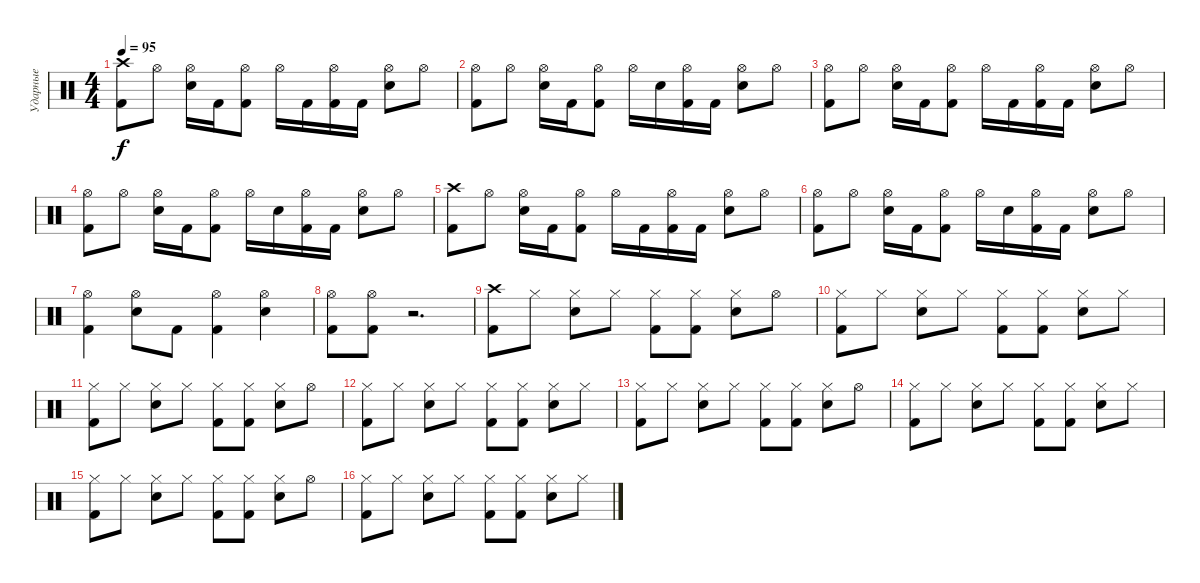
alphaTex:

\track ("Ударные" "Ударные") {instrument percussion}
\staff {score}
\articulation defaults
\ts (4 4)
\tempo 95
\clef neutral
\ks c
("Crash high (hit)" "Kick (hit) 2").8{dy f} "Hi-Hat (open)".8 ("Hi-Hat (open)" "Electric Snare (hit)").16 "Kick (hit) 2".16 ("Hi-Hat (open)" "Kick (hit) 2").8 "Hi-Hat (open)".16 "Kick (hit) 2".16 ("Hi-Hat (open)" "Kick (hit) 2").16 "Kick (hit) 2".16 ("Hi-Hat (open)" "Electric Snare (hit)").8 "Hi-Hat (open)".8 |
("Hi-Hat (open)" "Kick (hit) 2").8 "Hi-Hat (open)".8 ("Hi-Hat (open)" "Electric Snare (hit)").16 "Kick (hit) 2".16 ("Hi-Hat (open)" "Kick (hit) 2").8 "Hi-Hat (open)".16 "Electric Snare (hit)".16 ("Hi-Hat (open)" "Kick (hit) 2").16 "Kick (hit) 2".16 ("Hi-Hat (open)" "Electric Snare (hit)").8 "Hi-Hat (open)".8 |
("Hi-Hat (open)" "Kick (hit) 2").8 "Hi-Hat (open)".8 ("Hi-Hat (open)" "Electric Snare (hit)").16 "Kick (hit) 2".16 ("Hi-Hat (open)" "Kick (hit) 2").8 "Hi-Hat (open)".16 "Kick (hit) 2".16 ("Hi-Hat (open)" "Kick (hit) 2").16 "Kick (hit) 2".16 ("Hi-Hat (open)" "Electric Snare (hit)").8 "Hi-Hat (open)".8 |
("Hi-Hat (open)" "Kick (hit) 2").8 "Hi-Hat (open)".8 ("Hi-Hat (open)" "Electric Snare (hit)").16 "Kick (hit) 2".16 ("Hi-Hat (open)" "Kick (hit) 2").8 "Hi-Hat (open)".16 "Electric Snare (hit)".16 ("Hi-Hat (open)" "Kick (hit) 2").16 "Kick (hit) 2".16 ("Hi-Hat (open)" "Electric Snare (hit)").8 "Hi-Hat (open)".8 |
("Crash high (hit)" "Kick (hit) 2").8 "Hi-Hat (open)".8 ("Hi-Hat (open)" "Electric Snare (hit)").16 "Kick (hit) 2".16 ("Hi-Hat (open)" "Kick (hit) 2").8 "Hi-Hat (open)".16 "Kick (hit) 2".16 ("Hi-Hat (open)" "Kick (hit) 2").16 "Kick (hit) 2".16 ("Hi-Hat (open)" "Electric Snare (hit)").8 "Hi-Hat (open)".8 |
("Hi-Hat (open)" "Kick (hit) 2").8 "Hi-Hat (open)".8 ("Hi-Hat (open)" "Electric Snare (hit)").16 "Kick (hit) 2".16 ("Hi-Hat (open)" "Kick (hit) 2").8 "Hi-Hat (open)".16 "Electric Snare (hit)".16 ("Hi-Hat (open)" "Kick (hit) 2").16 "Kick (hit) 2".16 ("Hi-Hat (open)" "Electric Snare (hit)").8 "Hi-Hat (open)".8 |
("Hi-Hat (open)" "Kick (hit) 2").4 ("Hi-Hat (open)" "Electric Snare (hit)").8 "Kick (hit) 2".8 ("Hi-Hat (open)" "Kick (hit) 2").4 ("Hi-Hat (open)" "Electric Snare (hit)").4 |
("Hi-Hat (open)" "Kick (hit) 2").8 ("Hi-Hat (open)" "Kick (hit) 2").8 r.2{d} |
("Crash high (hit)" "Kick (hit) 2").8 "Hi-Hat (closed)".8 ("Hi-Hat (closed)" "Electric Snare (hit)").8 "Hi-Hat (closed)".8 ("Hi-Hat (closed)" "Kick (hit) 2").8 ("Hi-Hat (closed)" "Kick (hit) 2").8 ("Hi-Hat (closed)" "Electric Snare (hit)").8 "Hi-Hat (open)".8 |
("Hi-Hat (closed)" "Kick (hit) 2").8 "Hi-Hat (closed)".8 ("Hi-Hat (closed)" "Electric Snare (hit)").8 "Hi-Hat (closed)".8 ("Hi-Hat (closed)" "Kick (hit) 2").8 ("Hi-Hat (closed)" "Kick (hit) 2").8 ("Hi-Hat (closed)" "Electric Snare (hit)").8 "Hi-Hat (closed)".8 |
("Hi-Hat (closed)" "Kick (hit) 2").8 "Hi-Hat (closed)".8 ("Hi-Hat (closed)" "Electric Snare (hit)").8 "Hi-Hat (closed)".8 ("Hi-Hat (closed)" "Kick (hit) 2").8 ("Hi-Hat (closed)" "Kick (hit) 2").8 ("Hi-Hat (closed)" "Electric Snare (hit)").8 "Hi-Hat (open)".8 |
("Hi-Hat (closed)" "Kick (hit) 2").8 "Hi-Hat (closed)".8 ("Hi-Hat (closed)" "Electric Snare (hit)").8 "Hi-Hat (closed)".8 ("Hi-Hat (closed)" "Kick (hit) 2").8 ("Hi-Hat (closed)" "Kick (hit) 2").8 ("Hi-Hat (closed)" "Electric Snare (hit)").8 "Hi-Hat (closed)".8 |
("Hi-Hat (closed)" "Kick (hit) 2").8 "Hi-Hat (closed)".8 ("Hi-Hat (closed)" "Electric Snare (hit)").8 "Hi-Hat (closed)".8 ("Hi-Hat (closed)" "Kick (hit) 2").8 ("Hi-Hat (closed)" "Kick (hit) 2").8 ("Hi-Hat (closed)" "Electric Snare (hit)").8 "Hi-Hat (open)".8 |
("Hi-Hat (closed)" "Kick (hit) 2").8 "Hi-Hat (closed)".8 ("Hi-Hat (closed)" "Electric Snare (hit)").8 "Hi-Hat (closed)".8 ("Hi-Hat (closed)" "Kick (hit) 2").8 ("Hi-Hat (closed)" "Kick (hit) 2").8 ("Hi-Hat (closed)" "Electric Snare (hit)").8 "Hi-Hat (closed)".8 |
("Hi-Hat (closed)" "Kick (hit) 2").8 "Hi-Hat (closed)".8 ("Hi-Hat (closed)" "Electric Snare (hit)").8 "Hi-Hat (closed)".8 ("Hi-Hat (closed)" "Kick (hit) 2").8 ("Hi-Hat (closed)" "Kick (hit) 2").8 ("Hi-Hat (closed)" "Electric Snare (hit)").8 "Hi-Hat (open)".8 |
("Hi-Hat (closed)" "Kick (hit) 2").8 "Hi-Hat (closed)".8 ("Hi-Hat (closed)" "Electric Snare (hit)").8 "Hi-Hat (closed)".8 ("Hi-Hat (closed)" "Kick (hit) 2").8 ("Hi-Hat (closed)" "Kick (hit) 2").8 ("Hi-Hat (closed)" "Electric Snare (hit)").8 "Hi-Hat (closed)".8
